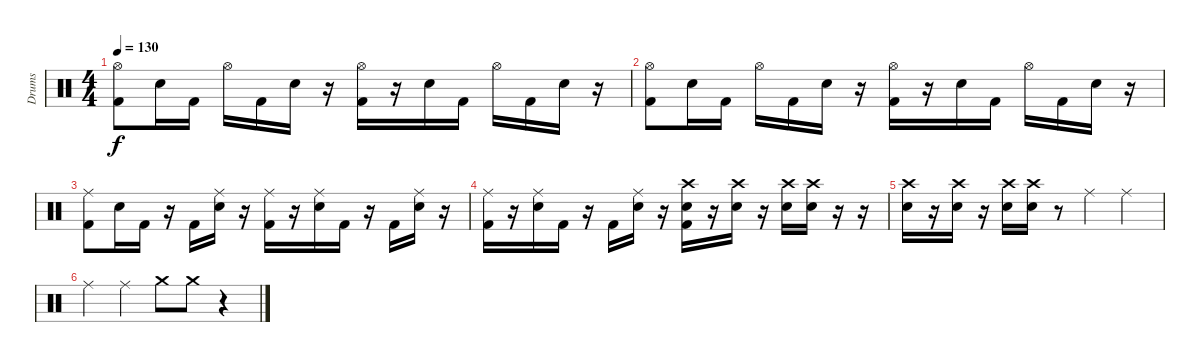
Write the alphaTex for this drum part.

\track ("Drums" "Drums") {instrument percussion}
\staff {score}
\articulation defaults
\ts (4 4)
\tempo 130
\clef neutral
\ks c
("Hi-Hat (open)" "Kick (hit) 2").8{dy f} "Electric Snare (hit)".16 "Kick (hit) 2".16 "Hi-Hat (open)".16 "Kick (hit) 2".16 "Electric Snare (hit)".16 r.16 ("Hi-Hat (open)" "Kick (hit) 2").16 r.16 "Electric Snare (hit)".16 "Kick (hit) 2".16 "Hi-Hat (open)".16 "Kick (hit) 2".16 "Electric Snare (hit)".16 r.16 |
("Hi-Hat (open)" "Kick (hit) 2").8 "Electric Snare (hit)".16 "Kick (hit) 2".16 "Hi-Hat (open)".16 "Kick (hit) 2".16 "Electric Snare (hit)".16 r.16 ("Hi-Hat (open)" "Kick (hit) 2").16 r.16 "Electric Snare (hit)".16 "Kick (hit) 2".16 "Hi-Hat (open)".16 "Kick (hit) 2".16 "Electric Snare (hit)".16 r.16 |
("Ride (middle)" "Kick (hit) 2").8 "Electric Snare (hit)".16 "Kick (hit) 2".16 r.16 "Kick (hit) 2".16 ("Ride (middle)" "Electric Snare (hit)").16 r.16 ("Ride (middle)" "Kick (hit) 2").16 r.16 ("Ride (middle)" "Electric Snare (hit)").16 "Kick (hit) 2".16 r.16 "Kick (hit) 2".16 ("Ride (middle)" "Electric Snare (hit)").16 r.16 |
("Ride (middle)" "Kick (hit) 2").16 r.16 ("Ride (middle)" "Electric Snare (hit)").16 "Kick (hit) 2".16 r.16 "Kick (hit) 2".16 ("Ride (middle)" "Electric Snare (hit)").16 r.16 ("Crash high (hit)" "Electric Snare (hit)" "Kick (hit) 2").16 r.16 ("Crash high (hit)" "Electric Snare (hit)").16 r.16 ("Crash high (hit)" "Electric Snare (hit)").16 ("Crash high (hit)" "Electric Snare (hit)").16 r.16 r.16 |
("Crash high (hit)" "Electric Snare (hit)").16 r.16 ("Crash high (hit)" "Electric Snare (hit)").16 r.16 ("Crash high (hit)" "Electric Snare (hit)").16 ("Crash high (hit)" "Electric Snare (hit)").16 r.8 "Ride (middle)".4 "Ride (middle)".4 |
"Ride (middle)".4 "Ride (middle)".4 "Crash medium (hit)".8 "Crash medium (hit)".8 r.4
